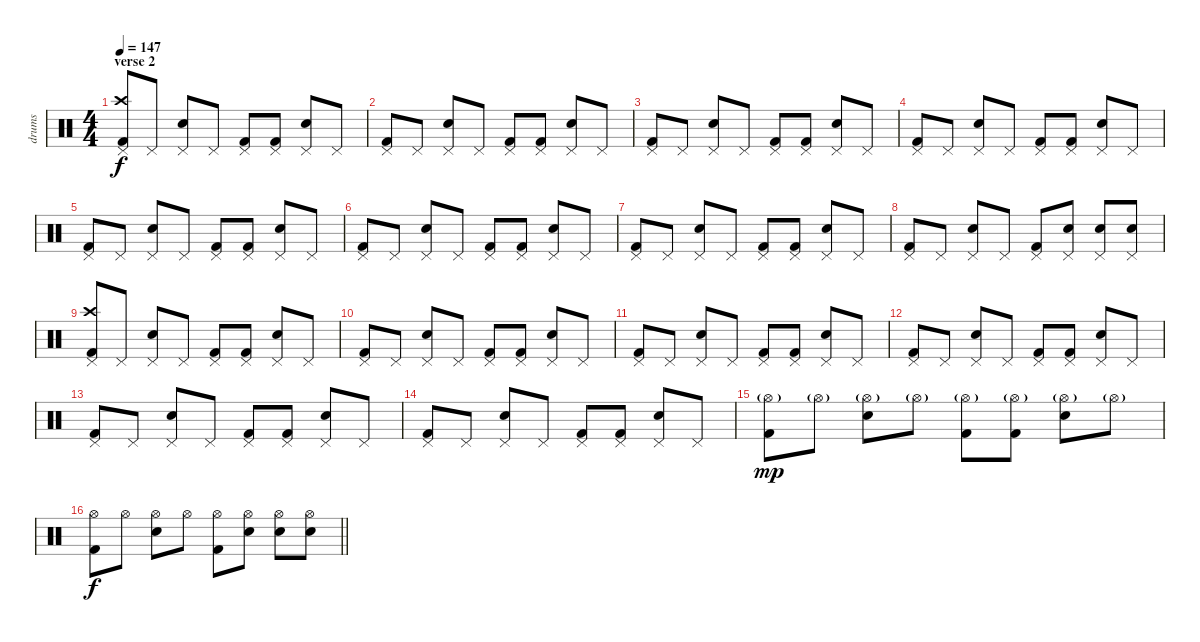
\track ("drums" "drums") {instrument percussion}
\staff {score}
\articulation defaults
\ts (4 4)
\section ("" "verse 2")
\tempo 147
\clef neutral
\ks c
("Kick (hit) 2" "Crash high (hit)" "Pedal Hi-Hat (hit)").8{dy f} "Pedal Hi-Hat (hit)".8 ("Snare (hit) 2" "Pedal Hi-Hat (hit)").8 "Pedal Hi-Hat (hit)".8 ("Kick (hit) 2" "Pedal Hi-Hat (hit)").8 ("Kick (hit) 2" "Pedal Hi-Hat (hit)").8 ("Snare (hit) 2" "Pedal Hi-Hat (hit)").8 "Pedal Hi-Hat (hit)".8 |
("Kick (hit) 2" "Pedal Hi-Hat (hit)").8 "Pedal Hi-Hat (hit)".8 ("Snare (hit) 2" "Pedal Hi-Hat (hit)").8 "Pedal Hi-Hat (hit)".8 ("Kick (hit) 2" "Pedal Hi-Hat (hit)").8 ("Kick (hit) 2" "Pedal Hi-Hat (hit)").8 ("Snare (hit) 2" "Pedal Hi-Hat (hit)").8 "Pedal Hi-Hat (hit)".8 |
("Kick (hit) 2" "Pedal Hi-Hat (hit)").8 "Pedal Hi-Hat (hit)".8 ("Snare (hit) 2" "Pedal Hi-Hat (hit)").8 "Pedal Hi-Hat (hit)".8 ("Kick (hit) 2" "Pedal Hi-Hat (hit)").8 ("Kick (hit) 2" "Pedal Hi-Hat (hit)").8 ("Snare (hit) 2" "Pedal Hi-Hat (hit)").8 "Pedal Hi-Hat (hit)".8 |
("Kick (hit) 2" "Pedal Hi-Hat (hit)").8 "Pedal Hi-Hat (hit)".8 ("Snare (hit) 2" "Pedal Hi-Hat (hit)").8 "Pedal Hi-Hat (hit)".8 ("Kick (hit) 2" "Pedal Hi-Hat (hit)").8 ("Kick (hit) 2" "Pedal Hi-Hat (hit)").8 ("Snare (hit) 2" "Pedal Hi-Hat (hit)").8 "Pedal Hi-Hat (hit)".8 |
("Kick (hit) 2" "Pedal Hi-Hat (hit)").8 "Pedal Hi-Hat (hit)".8 ("Snare (hit) 2" "Pedal Hi-Hat (hit)").8 "Pedal Hi-Hat (hit)".8 ("Kick (hit) 2" "Pedal Hi-Hat (hit)").8 ("Kick (hit) 2" "Pedal Hi-Hat (hit)").8 ("Snare (hit) 2" "Pedal Hi-Hat (hit)").8 "Pedal Hi-Hat (hit)".8 |
("Kick (hit) 2" "Pedal Hi-Hat (hit)").8 "Pedal Hi-Hat (hit)".8 ("Snare (hit) 2" "Pedal Hi-Hat (hit)").8 "Pedal Hi-Hat (hit)".8 ("Kick (hit) 2" "Pedal Hi-Hat (hit)").8 ("Kick (hit) 2" "Pedal Hi-Hat (hit)").8 ("Snare (hit) 2" "Pedal Hi-Hat (hit)").8 "Pedal Hi-Hat (hit)".8 |
("Kick (hit) 2" "Pedal Hi-Hat (hit)").8 "Pedal Hi-Hat (hit)".8 ("Snare (hit) 2" "Pedal Hi-Hat (hit)").8 "Pedal Hi-Hat (hit)".8 ("Kick (hit) 2" "Pedal Hi-Hat (hit)").8 ("Kick (hit) 2" "Pedal Hi-Hat (hit)").8 ("Snare (hit) 2" "Pedal Hi-Hat (hit)").8 "Pedal Hi-Hat (hit)".8 |
("Kick (hit) 2" "Pedal Hi-Hat (hit)").8 "Pedal Hi-Hat (hit)".8 ("Snare (hit) 2" "Pedal Hi-Hat (hit)").8 "Pedal Hi-Hat (hit)".8 ("Kick (hit) 2" "Pedal Hi-Hat (hit)").8 ("Snare (hit) 2" "Pedal Hi-Hat (hit)").8 ("Snare (hit) 2" "Pedal Hi-Hat (hit)").8 ("Snare (hit) 2" "Pedal Hi-Hat (hit)").8 |
("Kick (hit) 2" "Crash high (hit)" "Pedal Hi-Hat (hit)").8 "Pedal Hi-Hat (hit)".8 ("Snare (hit) 2" "Pedal Hi-Hat (hit)").8 "Pedal Hi-Hat (hit)".8 ("Kick (hit) 2" "Pedal Hi-Hat (hit)").8 ("Kick (hit) 2" "Pedal Hi-Hat (hit)").8 ("Snare (hit) 2" "Pedal Hi-Hat (hit)").8 "Pedal Hi-Hat (hit)".8 |
("Kick (hit) 2" "Pedal Hi-Hat (hit)").8 "Pedal Hi-Hat (hit)".8 ("Snare (hit) 2" "Pedal Hi-Hat (hit)").8 "Pedal Hi-Hat (hit)".8 ("Kick (hit) 2" "Pedal Hi-Hat (hit)").8 ("Kick (hit) 2" "Pedal Hi-Hat (hit)").8 ("Snare (hit) 2" "Pedal Hi-Hat (hit)").8 "Pedal Hi-Hat (hit)".8 |
("Kick (hit) 2" "Pedal Hi-Hat (hit)").8 "Pedal Hi-Hat (hit)".8 ("Snare (hit) 2" "Pedal Hi-Hat (hit)").8 "Pedal Hi-Hat (hit)".8 ("Kick (hit) 2" "Pedal Hi-Hat (hit)").8 ("Kick (hit) 2" "Pedal Hi-Hat (hit)").8 ("Snare (hit) 2" "Pedal Hi-Hat (hit)").8 "Pedal Hi-Hat (hit)".8 |
("Kick (hit) 2" "Pedal Hi-Hat (hit)").8 "Pedal Hi-Hat (hit)".8 ("Snare (hit) 2" "Pedal Hi-Hat (hit)").8 "Pedal Hi-Hat (hit)".8 ("Kick (hit) 2" "Pedal Hi-Hat (hit)").8 ("Kick (hit) 2" "Pedal Hi-Hat (hit)").8 ("Snare (hit) 2" "Pedal Hi-Hat (hit)").8 "Pedal Hi-Hat (hit)".8 |
("Kick (hit) 2" "Pedal Hi-Hat (hit)").8 "Pedal Hi-Hat (hit)".8 ("Snare (hit) 2" "Pedal Hi-Hat (hit)").8 "Pedal Hi-Hat (hit)".8 ("Kick (hit) 2" "Pedal Hi-Hat (hit)").8 ("Kick (hit) 2" "Pedal Hi-Hat (hit)").8 ("Snare (hit) 2" "Pedal Hi-Hat (hit)").8 "Pedal Hi-Hat (hit)".8 |
("Kick (hit) 2" "Pedal Hi-Hat (hit)").8 "Pedal Hi-Hat (hit)".8 ("Snare (hit) 2" "Pedal Hi-Hat (hit)").8 "Pedal Hi-Hat (hit)".8 ("Kick (hit) 2" "Pedal Hi-Hat (hit)").8 ("Kick (hit) 2" "Pedal Hi-Hat (hit)").8 ("Snare (hit) 2" "Pedal Hi-Hat (hit)").8 "Pedal Hi-Hat (hit)".8 |
("Kick (hit) 2" "Hi-Hat (open)"{g}).8{dy mp} "Hi-Hat (open)"{g}.8 ("Snare (hit) 2" "Hi-Hat (open)"{g}).8 "Hi-Hat (open)"{g}.8 ("Kick (hit) 2" "Hi-Hat (open)"{g}).8 ("Kick (hit) 2" "Hi-Hat (open)"{g}).8 ("Snare (hit) 2" "Hi-Hat (open)"{g}).8 "Hi-Hat (open)"{g}.8 |
\barLineRight lightlight
("Kick (hit) 2" "Hi-Hat (open)").8{dy f} "Hi-Hat (open)".8 ("Snare (hit) 2" "Hi-Hat (open)").8 "Hi-Hat (open)".8 ("Kick (hit) 2" "Hi-Hat (open)").8 ("Snare (hit) 2" "Hi-Hat (open)").8 ("Snare (hit) 2" "Hi-Hat (open)").8 ("Snare (hit) 2" "Hi-Hat (open)").8
